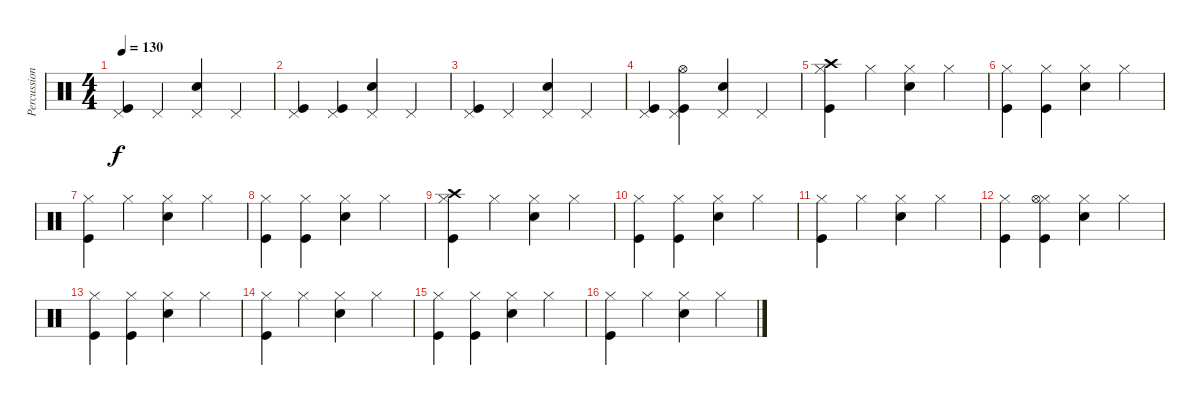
\track ("Percussion" "Percussion") {instrument percussion}
\staff {score}
\articulation defaults
\ts (4 4)
\tempo 130
\clef neutral
\ks c
("Pedal Hi-Hat (hit)" "Kick (hit)").4{dy f} "Pedal Hi-Hat (hit)".4 ("Pedal Hi-Hat (hit)" "Snare (hit) 2").4 "Pedal Hi-Hat (hit)".4 |
("Pedal Hi-Hat (hit)" "Kick (hit)").4 ("Pedal Hi-Hat (hit)" "Kick (hit)").4 ("Pedal Hi-Hat (hit)" "Snare (hit) 2").4 "Pedal Hi-Hat (hit)".4 |
("Pedal Hi-Hat (hit)" "Kick (hit)").4 "Pedal Hi-Hat (hit)".4 ("Pedal Hi-Hat (hit)" "Snare (hit) 2").4 "Pedal Hi-Hat (hit)".4 |
("Pedal Hi-Hat (hit)" "Kick (hit)").4 ("Pedal Hi-Hat (hit)" "Hi-Hat (open)" "Kick (hit)").4 ("Pedal Hi-Hat (hit)" "Snare (hit) 2").4 "Pedal Hi-Hat (hit)".4 |
("Hi-Hat (closed)" "Crash high (hit)" "Kick (hit)").4 "Hi-Hat (closed)".4 ("Hi-Hat (closed)" "Snare (hit) 2").4 "Hi-Hat (closed)".4 |
("Hi-Hat (closed)" "Kick (hit)").4 ("Hi-Hat (closed)" "Kick (hit)").4 ("Hi-Hat (closed)" "Snare (hit) 2").4 "Hi-Hat (closed)".4 |
("Hi-Hat (closed)" "Kick (hit)").4 "Hi-Hat (closed)".4 ("Hi-Hat (closed)" "Snare (hit) 2").4 "Hi-Hat (closed)".4 |
("Hi-Hat (closed)" "Kick (hit)").4 ("Hi-Hat (closed)" "Kick (hit)").4 ("Hi-Hat (closed)" "Snare (hit) 2").4 "Hi-Hat (closed)".4 |
("Hi-Hat (closed)" "Crash high (hit)" "Kick (hit)").4 "Hi-Hat (closed)".4 ("Hi-Hat (closed)" "Snare (hit) 2").4 "Hi-Hat (closed)".4 |
("Hi-Hat (closed)" "Kick (hit)").4 ("Hi-Hat (closed)" "Kick (hit)").4 ("Hi-Hat (closed)" "Snare (hit) 2").4 "Hi-Hat (closed)".4 |
("Hi-Hat (closed)" "Kick (hit)").4 "Hi-Hat (closed)".4 ("Hi-Hat (closed)" "Snare (hit) 2").4 "Hi-Hat (closed)".4 |
("Hi-Hat (closed)" "Kick (hit)").4 ("Hi-Hat (closed)" "Hi-Hat (open)" "Kick (hit)").4 ("Hi-Hat (closed)" "Snare (hit) 2").4 "Hi-Hat (closed)".4 |
("Hi-Hat (closed)" "Kick (hit)").4 ("Hi-Hat (closed)" "Kick (hit)").4 ("Hi-Hat (closed)" "Snare (hit) 2").4 "Hi-Hat (closed)".4 |
("Hi-Hat (closed)" "Kick (hit)").4 "Hi-Hat (closed)".4 ("Hi-Hat (closed)" "Snare (hit) 2").4 "Hi-Hat (closed)".4 |
("Hi-Hat (closed)" "Kick (hit)").4 ("Hi-Hat (closed)" "Kick (hit)").4 ("Hi-Hat (closed)" "Snare (hit) 2").4 "Hi-Hat (closed)".4 |
("Hi-Hat (closed)" "Kick (hit)").4 "Hi-Hat (closed)".4 ("Hi-Hat (closed)" "Snare (hit) 2").4 "Hi-Hat (closed)".4
